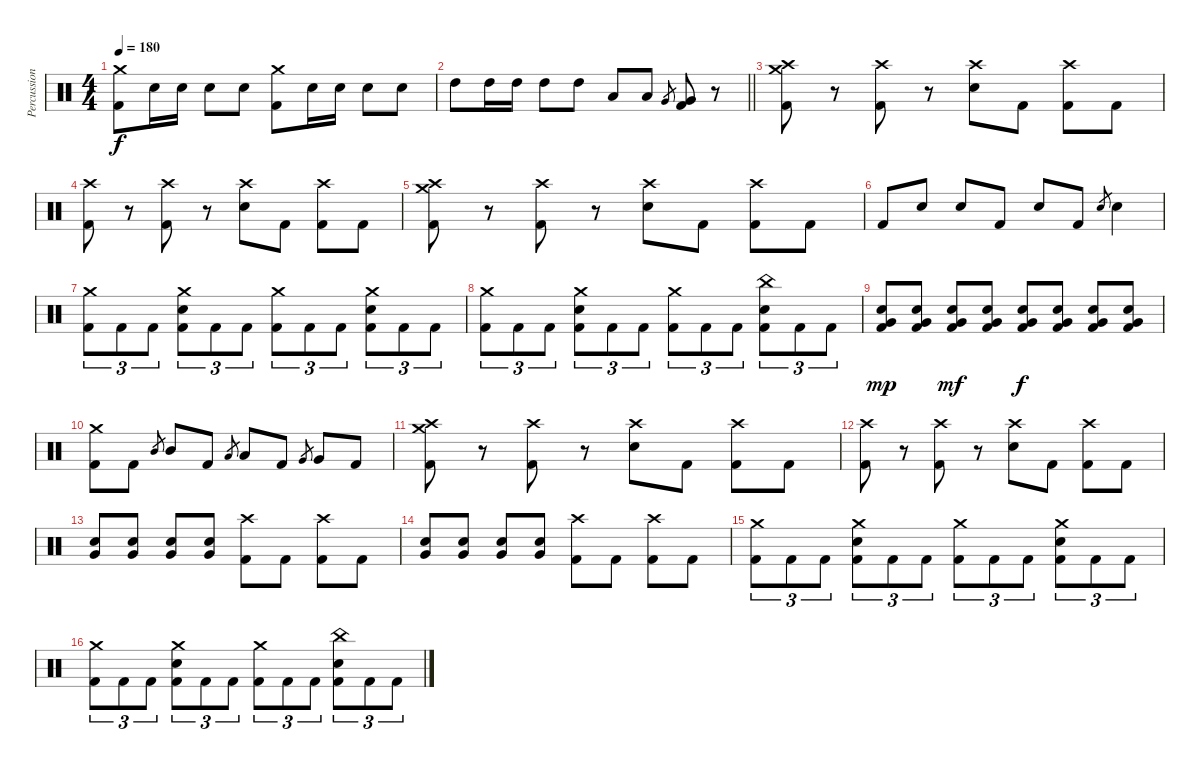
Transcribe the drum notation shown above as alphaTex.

\track ("Percussion" "Percussion") {instrument percussion}
\staff {score}
\articulation defaults
\ts (4 4)
\tempo 180
\clef neutral
\ks c
("Crash medium (hit)" "Kick (hit) 2").8{dy f} "Snare (hit) 2".16 "Snare (hit) 2".16 "Snare (hit) 2".8 "Snare (hit) 2".8 ("Crash medium (hit)" "Kick (hit) 2").8 "Snare (hit) 2".16 "Snare (hit) 2".16 "Snare (hit) 2".8 "Snare (hit) 2".8 |
\barLineRight lightlight "High Tom (hit)".8 "High Tom (hit)".16 "High Tom (hit)".16 "High Tom (hit)".8 "High Tom (hit)".8 "Low Tom (hit)".8 "Low Tom (hit)".8 "Very Low Tom (hit)".8{gr}
("Very Low Tom (hit)" "Kick (hit) 2").8 r.8 |
\section ("" "")
("Crash high (hit)" "Crash medium (hit)" "Kick (hit) 2").8 r.8 ("Crash high (hit)" "Kick (hit) 2").8 r.8 ("Crash high (hit)" "Snare (hit) 2").8 "Kick (hit) 2".8 ("Crash high (hit)" "Kick (hit) 2").8 "Kick (hit) 2".8 |
("Crash high (hit)" "Kick (hit) 2").8 r.8 ("Crash high (hit)" "Kick (hit) 2").8 r.8 ("Crash high (hit)" "Snare (hit) 2").8 "Kick (hit) 2".8 ("Crash high (hit)" "Kick (hit) 2").8 "Kick (hit) 2".8 |
("Crash high (hit)" "Crash medium (hit)" "Kick (hit) 2").8 r.8 ("Crash high (hit)" "Kick (hit) 2").8 r.8 ("Crash high (hit)" "Snare (hit) 2").8 "Kick (hit) 2".8 ("Crash high (hit)" "Kick (hit) 2").8 "Kick (hit) 2".8 |
"Kick (hit) 2".8 "Snare (hit) 2".8 "Snare (hit) 2".8 "Kick (hit) 2".8 "Snare (hit) 2".8 "Kick (hit) 2".8 "Snare (hit) 2".8{gr} "Snare (hit) 2".4 |
("Crash medium (hit)" "Kick (hit) 2").8{tu (3 2)} "Kick (hit) 2".8{tu (3 2)} "Kick (hit) 2".8{tu (3 2)} ("Crash medium (hit)" "Snare (hit) 2" "Kick (hit) 2").8{tu (3 2)} "Kick (hit) 2".8{tu (3 2)} "Kick (hit) 2".8{tu (3 2)} ("Crash medium (hit)" "Kick (hit) 2").8{tu (3 2)} "Kick (hit) 2".8{tu (3 2)} "Kick (hit) 2".8{tu (3 2)} ("Crash medium (hit)" "Snare (hit) 2" "Kick (hit) 2").8{tu (3 2)} "Kick (hit) 2".8{tu (3 2)} "Kick (hit) 2".8{tu (3 2)} |
("Crash medium (hit)" "Kick (hit) 2").8{tu (3 2)} "Kick (hit) 2".8{tu (3 2)} "Kick (hit) 2".8{tu (3 2)} ("Crash medium (hit)" "Snare (hit) 2" "Kick (hit) 2").8{tu (3 2)} "Kick (hit) 2".8{tu (3 2)} "Kick (hit) 2".8{tu (3 2)} ("Crash medium (hit)" "Kick (hit) 2").8{tu (3 2)} "Kick (hit) 2".8{tu (3 2)} "Kick (hit) 2".8{tu (3 2)} ("China (hit)" "Snare (hit) 2" "Kick (hit) 2").8{tu (3 2)} "Kick (hit) 2".8{tu (3 2)} "Kick (hit) 2".8{tu (3 2)} |
("Very Low Tom (hit)" "Snare (hit) 2" "Kick (hit) 2").8{dy mp} ("Very Low Tom (hit)" "Snare (hit) 2" "Kick (hit) 2").8 ("Very Low Tom (hit)" "Snare (hit) 2" "Kick (hit) 2").8{dy mf} ("Very Low Tom (hit)" "Snare (hit) 2" "Kick (hit) 2").8 ("Very Low Tom (hit)" "Snare (hit) 2" "Kick (hit) 2").8{dy f} ("Very Low Tom (hit)" "Snare (hit) 2" "Kick (hit) 2").8 ("Very Low Tom (hit)" "Snare (hit) 2" "Kick (hit) 2").8 ("Very Low Tom (hit)" "Snare (hit) 2" "Kick (hit) 2").8 |
("Crash medium (hit)" "Kick (hit) 2").8 "Kick (hit) 2".8 "Mid Tom (hit)".8{gr} "Mid Tom (hit)".8 "Kick (hit) 2".8 "Low Tom (hit)".8{gr} "Low Tom (hit)".8 "Kick (hit) 2".8 "Very Low Tom (hit)".8{gr} "Very Low Tom (hit)".8 "Kick (hit) 2".8 |
("Crash high (hit)" "Crash medium (hit)" "Kick (hit) 2").8 r.8 ("Crash high (hit)" "Kick (hit) 2").8 r.8 ("Crash high (hit)" "Snare (hit) 2").8 "Kick (hit) 2".8 ("Crash high (hit)" "Kick (hit) 2").8 "Kick (hit) 2".8 |
("Crash high (hit)" "Kick (hit) 2").8 r.8 ("Crash high (hit)" "Kick (hit) 2").8 r.8 ("Crash high (hit)" "Snare (hit) 2").8 "Kick (hit) 2".8 ("Crash high (hit)" "Kick (hit) 2").8 "Kick (hit) 2".8 |
("Very Low Tom (hit)" "Snare (hit) 2").8 ("Very Low Tom (hit)" "Snare (hit) 2").8 ("Very Low Tom (hit)" "Snare (hit) 2").8 ("Very Low Tom (hit)" "Snare (hit) 2").8 ("Crash high (hit)" "Kick (hit) 2").8 "Kick (hit) 2".8 ("Crash high (hit)" "Kick (hit) 2").8 "Kick (hit) 2".8 |
("Very Low Tom (hit)" "Snare (hit) 2").8 ("Very Low Tom (hit)" "Snare (hit) 2").8 ("Very Low Tom (hit)" "Snare (hit) 2").8 ("Very Low Tom (hit)" "Snare (hit) 2").8 ("Crash high (hit)" "Kick (hit) 2").8 "Kick (hit) 2".8 ("Crash high (hit)" "Kick (hit) 2").8 "Kick (hit) 2".8 |
("Crash medium (hit)" "Kick (hit) 2").8{tu (3 2)} "Kick (hit) 2".8{tu (3 2)} "Kick (hit) 2".8{tu (3 2)} ("Crash medium (hit)" "Snare (hit) 2" "Kick (hit) 2").8{tu (3 2)} "Kick (hit) 2".8{tu (3 2)} "Kick (hit) 2".8{tu (3 2)} ("Crash medium (hit)" "Kick (hit) 2").8{tu (3 2)} "Kick (hit) 2".8{tu (3 2)} "Kick (hit) 2".8{tu (3 2)} ("Crash medium (hit)" "Snare (hit) 2" "Kick (hit) 2").8{tu (3 2)} "Kick (hit) 2".8{tu (3 2)} "Kick (hit) 2".8{tu (3 2)} |
("Crash medium (hit)" "Kick (hit) 2").8{tu (3 2)} "Kick (hit) 2".8{tu (3 2)} "Kick (hit) 2".8{tu (3 2)} ("Crash medium (hit)" "Snare (hit) 2" "Kick (hit) 2").8{tu (3 2)} "Kick (hit) 2".8{tu (3 2)} "Kick (hit) 2".8{tu (3 2)} ("Crash medium (hit)" "Kick (hit) 2").8{tu (3 2)} "Kick (hit) 2".8{tu (3 2)} "Kick (hit) 2".8{tu (3 2)} ("China (hit)" "Snare (hit) 2" "Kick (hit) 2").8{tu (3 2)} "Kick (hit) 2".8{tu (3 2)} "Kick (hit) 2".8{tu (3 2)}
